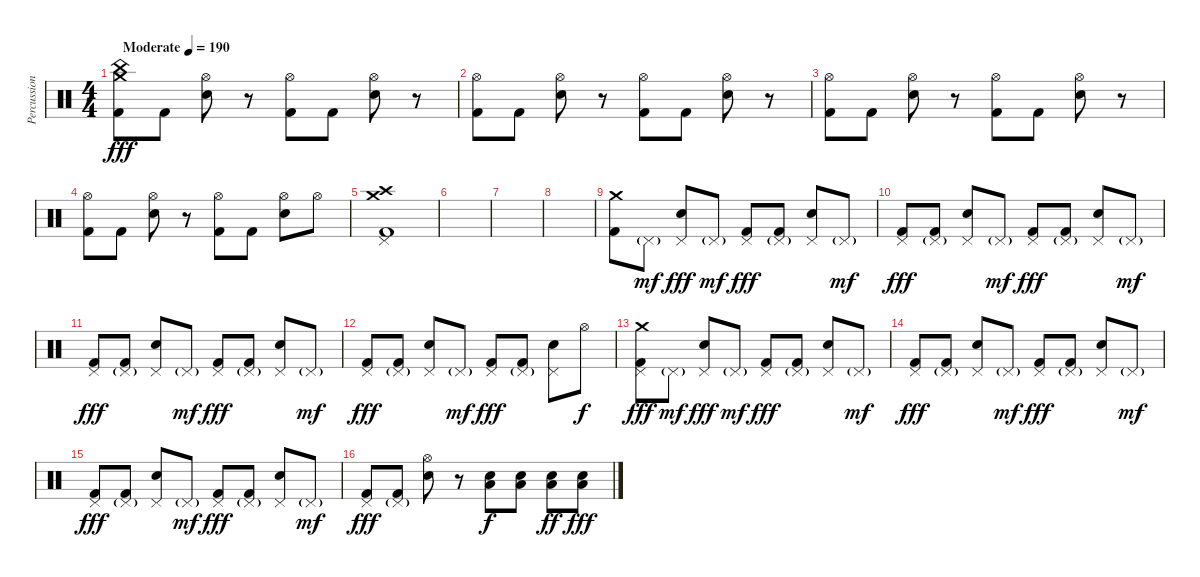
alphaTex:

\track ("Percussions" "Percussion") {instrument percussion}
\staff {score}
\articulation defaults
\ts (4 4)
\tempo (190 "Moderate")
\clef neutral
\ks c
("Crash medium (hit)" "China (hit)" "Kick (hit) 2").8{dy fff} "Kick (hit) 2".8 ("Hi-Hat (open)" "Electric Snare (hit)").8 r.8 ("Hi-Hat (open)" "Kick (hit) 2").8 "Kick (hit) 2".8 ("Hi-Hat (open)" "Electric Snare (hit)").8 r.8 |
("Hi-Hat (open)" "Kick (hit) 2").8 "Kick (hit) 2".8 ("Hi-Hat (open)" "Electric Snare (hit)").8 r.8 ("Hi-Hat (open)" "Kick (hit) 2").8 "Kick (hit) 2".8 ("Hi-Hat (open)" "Electric Snare (hit)").8 r.8 |
("Hi-Hat (open)" "Kick (hit) 2").8 "Kick (hit) 2".8 ("Hi-Hat (open)" "Electric Snare (hit)").8 r.8 ("Hi-Hat (open)" "Kick (hit) 2").8 "Kick (hit) 2".8 ("Hi-Hat (open)" "Electric Snare (hit)").8 r.8 |
("Hi-Hat (open)" "Kick (hit) 2").8 "Kick (hit) 2".8 ("Hi-Hat (open)" "Electric Snare (hit)").8 r.8 ("Hi-Hat (open)" "Kick (hit) 2").8 "Kick (hit) 2".8 ("Hi-Hat (open)" "Electric Snare (hit)").8 "Hi-Hat (open)".8 |
("Crash medium (hit)" "Crash high (hit)" "Pedal Hi-Hat (hit)" "Kick (hit) 2").1 |
|
|
|
("Crash medium (hit)" "Kick (hit) 2").8 "Pedal Hi-Hat (hit)"{g}.8{dy mf} ("Pedal Hi-Hat (hit)" "Electric Snare (hit)").8{dy fff} "Pedal Hi-Hat (hit)"{g}.8{dy mf} ("Pedal Hi-Hat (hit)" "Kick (hit) 2").8{dy fff} ("Pedal Hi-Hat (hit)"{g} "Kick (hit) 2").8 ("Pedal Hi-Hat (hit)" "Electric Snare (hit)").8 "Pedal Hi-Hat (hit)"{g}.8{dy mf} |
("Pedal Hi-Hat (hit)" "Kick (hit) 2").8{dy fff} ("Pedal Hi-Hat (hit)"{g} "Kick (hit) 2").8 ("Pedal Hi-Hat (hit)" "Electric Snare (hit)").8 "Pedal Hi-Hat (hit)"{g}.8{dy mf} ("Pedal Hi-Hat (hit)" "Kick (hit) 2").8{dy fff} ("Pedal Hi-Hat (hit)"{g} "Kick (hit) 2").8 ("Pedal Hi-Hat (hit)" "Electric Snare (hit)").8 "Pedal Hi-Hat (hit)"{g}.8{dy mf} |
("Pedal Hi-Hat (hit)" "Kick (hit) 2").8{dy fff} ("Pedal Hi-Hat (hit)"{g} "Kick (hit) 2").8 ("Pedal Hi-Hat (hit)" "Electric Snare (hit)").8 "Pedal Hi-Hat (hit)"{g}.8{dy mf} ("Pedal Hi-Hat (hit)" "Kick (hit) 2").8{dy fff} ("Pedal Hi-Hat (hit)"{g} "Kick (hit) 2").8 ("Pedal Hi-Hat (hit)" "Electric Snare (hit)").8 "Pedal Hi-Hat (hit)"{g}.8{dy mf} |
("Pedal Hi-Hat (hit)" "Kick (hit) 2").8{dy fff} ("Pedal Hi-Hat (hit)"{g} "Kick (hit) 2").8 ("Pedal Hi-Hat (hit)" "Electric Snare (hit)").8 "Pedal Hi-Hat (hit)"{g}.8{dy mf} ("Pedal Hi-Hat (hit)" "Kick (hit) 2").8{dy fff} ("Pedal Hi-Hat (hit)"{g} "Kick (hit) 2").8 ("Pedal Hi-Hat (hit)" "Electric Snare (hit)").8 "Hi-Hat (open)".8{dy f} |
("Crash medium (hit)" "Pedal Hi-Hat (hit)" "Kick (hit) 2").8{dy fff} "Pedal Hi-Hat (hit)"{g}.8{dy mf} ("Pedal Hi-Hat (hit)" "Electric Snare (hit)").8{dy fff} "Pedal Hi-Hat (hit)"{g}.8{dy mf} ("Pedal Hi-Hat (hit)" "Kick (hit) 2").8{dy fff} ("Pedal Hi-Hat (hit)"{g} "Kick (hit) 2").8 ("Pedal Hi-Hat (hit)" "Electric Snare (hit)").8 "Pedal Hi-Hat (hit)"{g}.8{dy mf} |
("Pedal Hi-Hat (hit)" "Kick (hit) 2").8{dy fff} ("Pedal Hi-Hat (hit)"{g} "Kick (hit) 2").8 ("Pedal Hi-Hat (hit)" "Electric Snare (hit)").8 "Pedal Hi-Hat (hit)"{g}.8{dy mf} ("Pedal Hi-Hat (hit)" "Kick (hit) 2").8{dy fff} ("Pedal Hi-Hat (hit)"{g} "Kick (hit) 2").8 ("Pedal Hi-Hat (hit)" "Electric Snare (hit)").8 "Pedal Hi-Hat (hit)"{g}.8{dy mf} |
("Pedal Hi-Hat (hit)" "Kick (hit) 2").8{dy fff} ("Pedal Hi-Hat (hit)"{g} "Kick (hit) 2").8 ("Pedal Hi-Hat (hit)" "Electric Snare (hit)").8 "Pedal Hi-Hat (hit)"{g}.8{dy mf} ("Pedal Hi-Hat (hit)" "Kick (hit) 2").8{dy fff} ("Pedal Hi-Hat (hit)"{g} "Kick (hit) 2").8 ("Pedal Hi-Hat (hit)" "Electric Snare (hit)").8 "Pedal Hi-Hat (hit)"{g}.8{dy mf} |
("Pedal Hi-Hat (hit)" "Kick (hit) 2").8{dy fff} ("Pedal Hi-Hat (hit)"{g} "Kick (hit) 2").8 ("Hi-Hat (open)" "Electric Snare (hit)").8 r.8 ("Electric Snare (hit)" "Low Floor Tom (hit)").8{dy f} ("Electric Snare (hit)" "Low Floor Tom (hit)").8 ("Electric Snare (hit)" "Low Floor Tom (hit)").8{dy ff} ("Electric Snare (hit)" "Low Floor Tom (hit)").8{dy fff}
